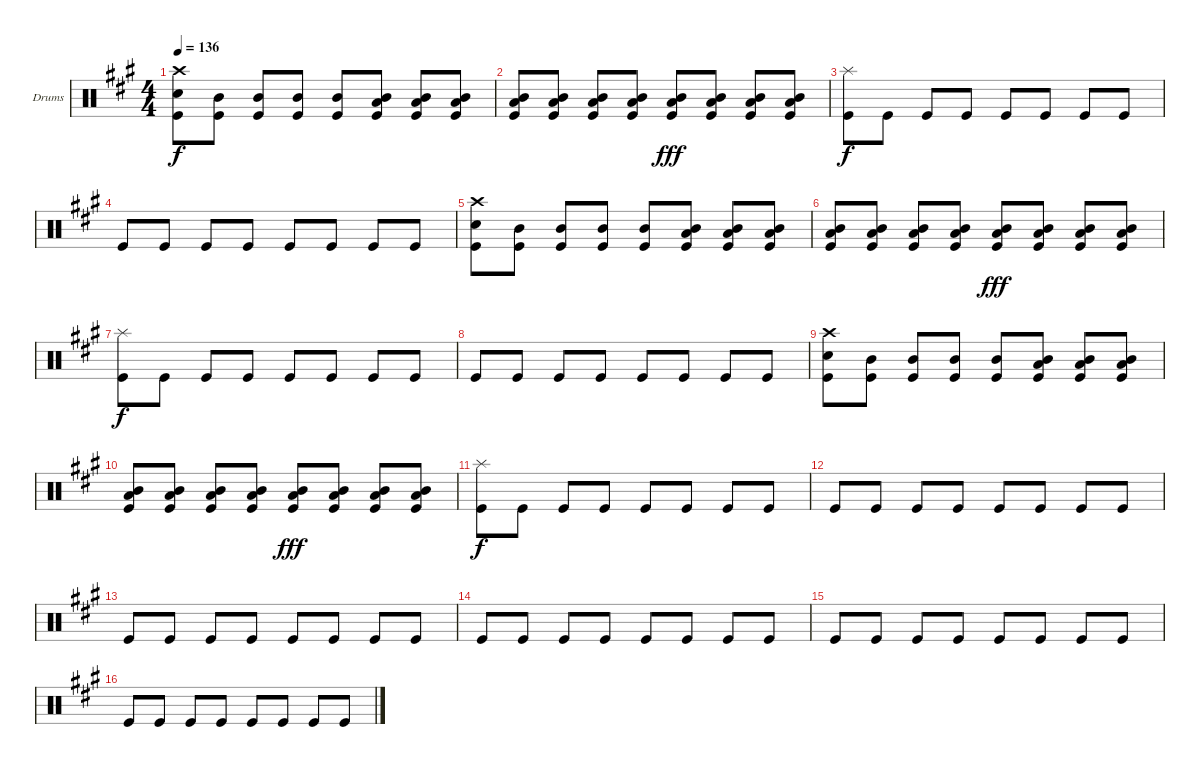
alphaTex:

\defaultSystemsLayout 4
\bracketExtendMode groupsimilarinstruments
\firstSystemTrackNameOrientation horizontal
\otherSystemsTrackNameOrientation horizontal
\track ("Drumkit" "Drums") {instrument percussion}
\staff {score}
\articulation defaults
\ts (4 4)
\tempo 136
\clef neutral
\scale
1.05801
\ks a
("Kick (hit)" "Snare (hit) 2" "Crash high (hit)").8{dy f} ("Kick (hit)" "Mid Tom (hit)").8 ("Kick (hit)" "Mid Tom (hit)").8 ("Kick (hit)" "Mid Tom (hit)").8 ("Kick (hit)" "Mid Tom (hit)").8 ("Kick (hit)" "Low Tom (hit)" "Mid Tom (hit)").8 ("Kick (hit)" "Low Tom (hit)" "Mid Tom (hit)").8 ("Kick (hit)" "Low Tom (hit)" "Mid Tom (hit)").8 |
\scale
0.941992 ("Kick (hit)" "Low Tom (hit)" "Mid Tom (hit)").8 ("Kick (hit)" "Low Tom (hit)" "Mid Tom (hit)").8 ("Kick (hit)" "Low Tom (hit)" "Mid Tom (hit)").8 ("Kick (hit)" "Low Tom (hit)" "Mid Tom (hit)").8 ("Kick (hit)" "Low Tom (hit)" "Mid Tom (hit)").8{dy fff} ("Kick (hit)" "Low Tom (hit)" "Mid Tom (hit)").8 ("Kick (hit)" "Low Tom (hit)" "Mid Tom (hit)").8 ("Kick (hit)" "Low Tom (hit)" "Mid Tom (hit)").8 |
\scale
1.05801 ("Kick (hit)" "Splash (hit)").8{dy f} "Kick (hit)".8 "Kick (hit)".8 "Kick (hit)".8 "Kick (hit)".8 "Kick (hit)".8 "Kick (hit)".8 "Kick (hit)".8 |
\scale
0.941992 "Kick (hit)".8 "Kick (hit)".8 "Kick (hit)".8 "Kick (hit)".8 "Kick (hit)".8 "Kick (hit)".8 "Kick (hit)".8 "Kick (hit)".8 |
\scale
1.05801 ("Kick (hit)" "Snare (hit) 2" "Crash high (hit)").8 ("Kick (hit)" "Mid Tom (hit)").8 ("Kick (hit)" "Mid Tom (hit)").8 ("Kick (hit)" "Mid Tom (hit)").8 ("Kick (hit)" "Mid Tom (hit)").8 ("Kick (hit)" "Low Tom (hit)" "Mid Tom (hit)").8 ("Kick (hit)" "Low Tom (hit)" "Mid Tom (hit)").8 ("Kick (hit)" "Low Tom (hit)" "Mid Tom (hit)").8 |
\scale
0.941992 ("Kick (hit)" "Low Tom (hit)" "Mid Tom (hit)").8 ("Kick (hit)" "Low Tom (hit)" "Mid Tom (hit)").8 ("Kick (hit)" "Low Tom (hit)" "Mid Tom (hit)").8 ("Kick (hit)" "Low Tom (hit)" "Mid Tom (hit)").8 ("Kick (hit)" "Low Tom (hit)" "Mid Tom (hit)").8{dy fff} ("Kick (hit)" "Low Tom (hit)" "Mid Tom (hit)").8 ("Kick (hit)" "Low Tom (hit)" "Mid Tom (hit)").8 ("Kick (hit)" "Low Tom (hit)" "Mid Tom (hit)").8 |
\scale
1.05801 ("Kick (hit)" "Splash (hit)").8{dy f} "Kick (hit)".8 "Kick (hit)".8 "Kick (hit)".8 "Kick (hit)".8 "Kick (hit)".8 "Kick (hit)".8 "Kick (hit)".8 |
\scale
0.941992 "Kick (hit)".8 "Kick (hit)".8 "Kick (hit)".8 "Kick (hit)".8 "Kick (hit)".8 "Kick (hit)".8 "Kick (hit)".8 "Kick (hit)".8 |
\scale
1.05801 ("Kick (hit)" "Snare (hit) 2" "Crash high (hit)").8 ("Kick (hit)" "Mid Tom (hit)").8 ("Kick (hit)" "Mid Tom (hit)").8 ("Kick (hit)" "Mid Tom (hit)").8 ("Kick (hit)" "Mid Tom (hit)").8 ("Kick (hit)" "Low Tom (hit)" "Mid Tom (hit)").8 ("Kick (hit)" "Low Tom (hit)" "Mid Tom (hit)").8 ("Kick (hit)" "Low Tom (hit)" "Mid Tom (hit)").8 |
\scale
0.941992 ("Kick (hit)" "Low Tom (hit)" "Mid Tom (hit)").8 ("Kick (hit)" "Low Tom (hit)" "Mid Tom (hit)").8 ("Kick (hit)" "Low Tom (hit)" "Mid Tom (hit)").8 ("Kick (hit)" "Low Tom (hit)" "Mid Tom (hit)").8 ("Kick (hit)" "Low Tom (hit)" "Mid Tom (hit)").8{dy fff} ("Kick (hit)" "Low Tom (hit)" "Mid Tom (hit)").8 ("Kick (hit)" "Low Tom (hit)" "Mid Tom (hit)").8 ("Kick (hit)" "Low Tom (hit)" "Mid Tom (hit)").8 |
\scale
1.05801 ("Kick (hit)" "Splash (hit)").8{dy f} "Kick (hit)".8 "Kick (hit)".8 "Kick (hit)".8 "Kick (hit)".8 "Kick (hit)".8 "Kick (hit)".8 "Kick (hit)".8 |
\scale
0.941992 "Kick (hit)".8 "Kick (hit)".8 "Kick (hit)".8 "Kick (hit)".8 "Kick (hit)".8 "Kick (hit)".8 "Kick (hit)".8 "Kick (hit)".8 |
\scale
1.05801 "Kick (hit)".8 "Kick (hit)".8 "Kick (hit)".8 "Kick (hit)".8 "Kick (hit)".8 "Kick (hit)".8 "Kick (hit)".8 "Kick (hit)".8 |
\scale
0.941992 "Kick (hit)".8 "Kick (hit)".8 "Kick (hit)".8 "Kick (hit)".8 "Kick (hit)".8 "Kick (hit)".8 "Kick (hit)".8 "Kick (hit)".8 |
\scale
1.05801 "Kick (hit)".8 "Kick (hit)".8 "Kick (hit)".8 "Kick (hit)".8 "Kick (hit)".8 "Kick (hit)".8 "Kick (hit)".8 "Kick (hit)".8 |
\scale
0.941992 "Kick (hit)".8 "Kick (hit)".8 "Kick (hit)".8 "Kick (hit)".8 "Kick (hit)".8 "Kick (hit)".8 "Kick (hit)".8 "Kick (hit)".8
